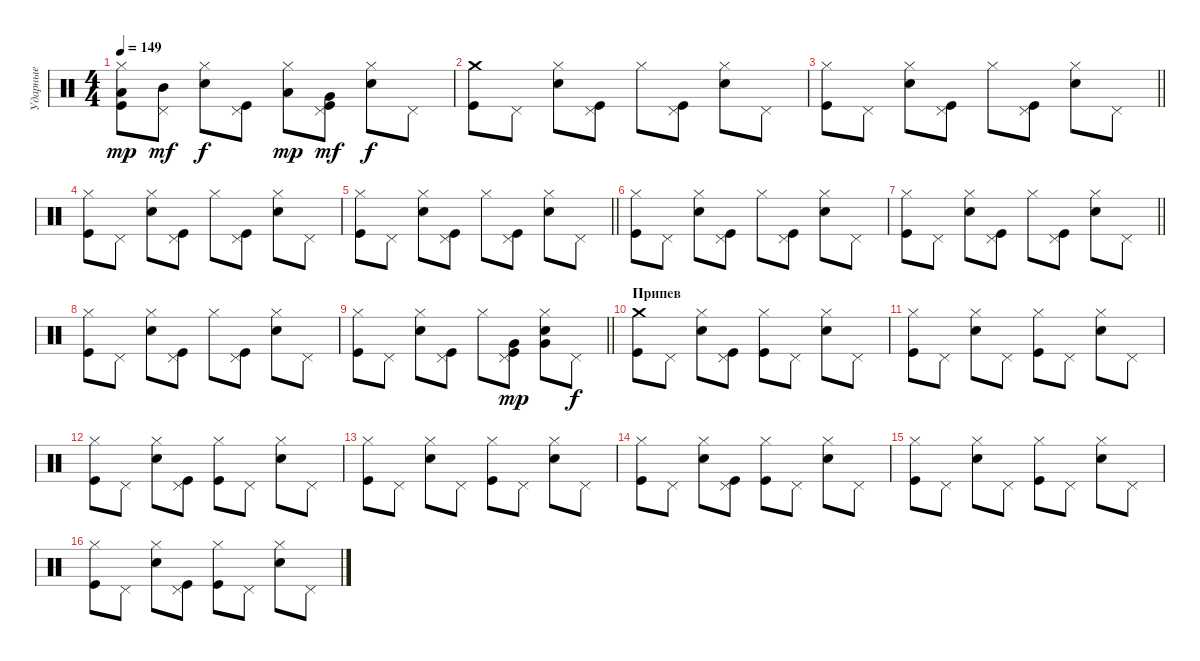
\track ("Ударные" "Ударные") {instrument percussion}
\staff {score}
\articulation defaults
\ts (4 4)
\tempo 149
\clef neutral
\ks c
("Hi-Hat (closed)" "Kick (hit)" "Low Tom (hit)").8{dy mp} ("Pedal Hi-Hat (hit)" "Mid Tom (hit)").8{dy mf} ("Hi-Hat (closed)" "Snare (hit) 2").8{dy f} ("Pedal Hi-Hat (hit)" "Kick (hit)").8 ("Hi-Hat (closed)" "Low Floor Tom (hit)").8{dy mp} ("Pedal Hi-Hat (hit)" "Kick (hit)" "Very Low Tom (hit)").8{dy mf} ("Hi-Hat (closed)" "Snare (hit) 2").8{dy f} "Pedal Hi-Hat (hit)".8 |
("Crash medium (hit)" "Kick (hit)").8 "Pedal Hi-Hat (hit)".8 ("Hi-Hat (closed)" "Snare (hit) 2").8 ("Pedal Hi-Hat (hit)" "Kick (hit)").8 "Hi-Hat (closed)".8 ("Pedal Hi-Hat (hit)" "Kick (hit)").8 ("Hi-Hat (closed)" "Snare (hit) 2").8 "Pedal Hi-Hat (hit)".8 |
\barLineRight lightlight
("Hi-Hat (closed)" "Kick (hit)").8 "Pedal Hi-Hat (hit)".8 ("Hi-Hat (closed)" "Snare (hit) 2").8 ("Pedal Hi-Hat (hit)" "Kick (hit)").8 "Hi-Hat (closed)".8 ("Pedal Hi-Hat (hit)" "Kick (hit)").8 ("Hi-Hat (closed)" "Snare (hit) 2").8 "Pedal Hi-Hat (hit)".8 |
("Hi-Hat (closed)" "Kick (hit)").8 "Pedal Hi-Hat (hit)".8 ("Hi-Hat (closed)" "Snare (hit) 2").8 ("Pedal Hi-Hat (hit)" "Kick (hit)").8 "Hi-Hat (closed)".8 ("Pedal Hi-Hat (hit)" "Kick (hit)").8 ("Hi-Hat (closed)" "Snare (hit) 2").8 "Pedal Hi-Hat (hit)".8 |
\barLineRight lightlight
("Hi-Hat (closed)" "Kick (hit)").8 "Pedal Hi-Hat (hit)".8 ("Hi-Hat (closed)" "Snare (hit) 2").8 ("Pedal Hi-Hat (hit)" "Kick (hit)").8 "Hi-Hat (closed)".8 ("Pedal Hi-Hat (hit)" "Kick (hit)").8 ("Hi-Hat (closed)" "Snare (hit) 2").8 "Pedal Hi-Hat (hit)".8 |
("Hi-Hat (closed)" "Kick (hit)").8 "Pedal Hi-Hat (hit)".8 ("Hi-Hat (closed)" "Snare (hit) 2").8 ("Pedal Hi-Hat (hit)" "Kick (hit)").8 "Hi-Hat (closed)".8 ("Pedal Hi-Hat (hit)" "Kick (hit)").8 ("Hi-Hat (closed)" "Snare (hit) 2").8 "Pedal Hi-Hat (hit)".8 |
\barLineRight lightlight
("Hi-Hat (closed)" "Kick (hit)").8 "Pedal Hi-Hat (hit)".8 ("Hi-Hat (closed)" "Snare (hit) 2").8 ("Pedal Hi-Hat (hit)" "Kick (hit)").8 "Hi-Hat (closed)".8 ("Pedal Hi-Hat (hit)" "Kick (hit)").8 ("Hi-Hat (closed)" "Snare (hit) 2").8 "Pedal Hi-Hat (hit)".8 |
("Hi-Hat (closed)" "Kick (hit)").8 "Pedal Hi-Hat (hit)".8 ("Hi-Hat (closed)" "Snare (hit) 2").8 ("Pedal Hi-Hat (hit)" "Kick (hit)").8 "Hi-Hat (closed)".8 ("Pedal Hi-Hat (hit)" "Kick (hit)").8 ("Hi-Hat (closed)" "Snare (hit) 2").8 "Pedal Hi-Hat (hit)".8 |
\barLineRight lightlight
("Hi-Hat (closed)" "Kick (hit)").8 "Pedal Hi-Hat (hit)".8 ("Hi-Hat (closed)" "Snare (hit) 2").8 ("Pedal Hi-Hat (hit)" "Kick (hit)").8 "Hi-Hat (closed)".8 ("Pedal Hi-Hat (hit)" "Kick (hit)" "Very Low Tom (hit)").8{dy mp} ("Hi-Hat (closed)" "Snare (hit) 2" "Very Low Tom (hit)").8 "Pedal Hi-Hat (hit)".8{dy f} |
\section ("" "Припев")
("Crash medium (hit)" "Kick (hit)").8 "Pedal Hi-Hat (hit)".8 ("Hi-Hat (closed)" "Snare (hit) 2").8 ("Pedal Hi-Hat (hit)" "Kick (hit)").8 ("Hi-Hat (closed)" "Kick (hit)").8 "Pedal Hi-Hat (hit)".8 ("Hi-Hat (closed)" "Snare (hit) 2").8 "Pedal Hi-Hat (hit)".8 |
("Hi-Hat (closed)" "Kick (hit)").8 "Pedal Hi-Hat (hit)".8 ("Hi-Hat (closed)" "Snare (hit) 2").8 "Pedal Hi-Hat (hit)".8 ("Hi-Hat (closed)" "Kick (hit)").8 "Pedal Hi-Hat (hit)".8 ("Hi-Hat (closed)" "Snare (hit) 2").8 "Pedal Hi-Hat (hit)".8 |
("Hi-Hat (closed)" "Kick (hit)").8 "Pedal Hi-Hat (hit)".8 ("Hi-Hat (closed)" "Snare (hit) 2").8 ("Pedal Hi-Hat (hit)" "Kick (hit)").8 ("Hi-Hat (closed)" "Kick (hit)").8 "Pedal Hi-Hat (hit)".8 ("Hi-Hat (closed)" "Snare (hit) 2").8 "Pedal Hi-Hat (hit)".8 |
("Hi-Hat (closed)" "Kick (hit)").8 "Pedal Hi-Hat (hit)".8 ("Hi-Hat (closed)" "Snare (hit) 2").8 "Pedal Hi-Hat (hit)".8 ("Hi-Hat (closed)" "Kick (hit)").8 "Pedal Hi-Hat (hit)".8 ("Hi-Hat (closed)" "Snare (hit) 2").8 "Pedal Hi-Hat (hit)".8 |
("Hi-Hat (closed)" "Kick (hit)").8 "Pedal Hi-Hat (hit)".8 ("Hi-Hat (closed)" "Snare (hit) 2").8 ("Pedal Hi-Hat (hit)" "Kick (hit)").8 ("Hi-Hat (closed)" "Kick (hit)").8 "Pedal Hi-Hat (hit)".8 ("Hi-Hat (closed)" "Snare (hit) 2").8 "Pedal Hi-Hat (hit)".8 |
("Hi-Hat (closed)" "Kick (hit)").8 "Pedal Hi-Hat (hit)".8 ("Hi-Hat (closed)" "Snare (hit) 2").8 "Pedal Hi-Hat (hit)".8 ("Hi-Hat (closed)" "Kick (hit)").8 "Pedal Hi-Hat (hit)".8 ("Hi-Hat (closed)" "Snare (hit) 2").8 "Pedal Hi-Hat (hit)".8 |
("Hi-Hat (closed)" "Kick (hit)").8 "Pedal Hi-Hat (hit)".8 ("Hi-Hat (closed)" "Snare (hit) 2").8 ("Pedal Hi-Hat (hit)" "Kick (hit)").8 ("Hi-Hat (closed)" "Kick (hit)").8 "Pedal Hi-Hat (hit)".8 ("Hi-Hat (closed)" "Snare (hit) 2").8 "Pedal Hi-Hat (hit)".8
